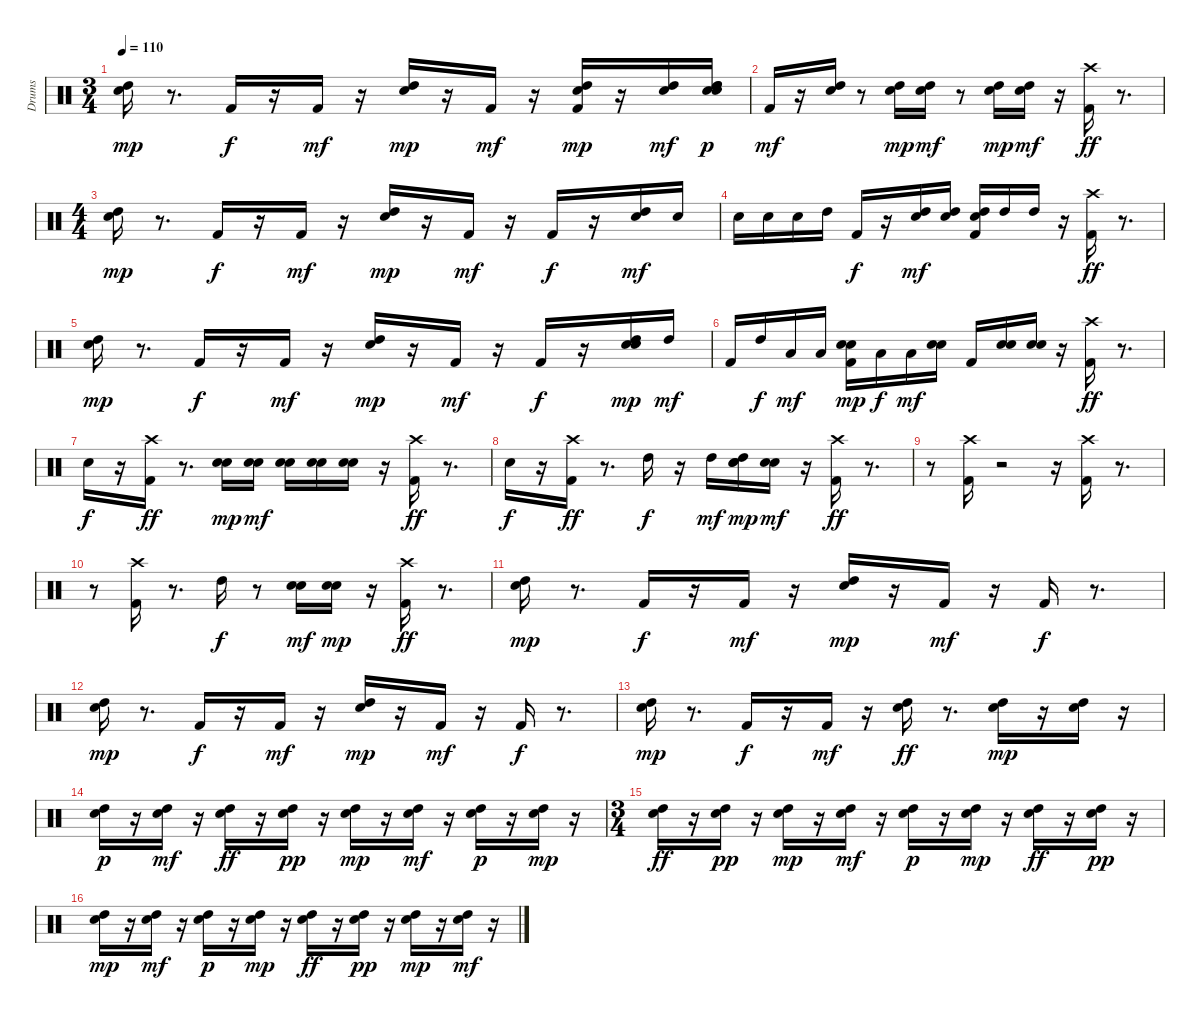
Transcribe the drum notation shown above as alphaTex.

\track ("Drums" "Drums") {instrument percussion}
\staff {score}
\articulation defaults
\ts (3 4)
\tempo 110
\clef neutral
\ks c
("High Tom (hit)" "Snare (hit) 2").16{dy mp} r.8{d} "Kick (hit) 2".16{dy f} r.16 "Kick (hit) 2".16{dy mf} r.16 ("High Tom (hit)" "Snare (hit) 2").16{dy mp} r.16 "Kick (hit) 2".16{dy mf} r.16 ("High Tom (hit)" "Snare (hit) 2" "Kick (hit) 2").16{dy mp} r.16 ("High Tom (hit)" "Snare (hit) 2").16{dy mf} ("Snare (hit) 2" "High Tom (hit)" "Snare (hit) 2" "High Tom (hit)").16{dy p} |
"Kick (hit) 2".16{dy mf} r.16 ("High Tom (hit)" "Snare (hit) 2").16 r.8 ("High Tom (hit)" "Snare (hit) 2").16{dy mp} ("High Tom (hit)" "Snare (hit) 2").16{dy mf} r.8 ("High Tom (hit)" "Snare (hit) 2").16{dy mp} ("High Tom (hit)" "Snare (hit) 2").16{dy mf} r.16 ("Crash high (hit)" "Kick (hit) 2").16{dy ff} r.8{d} |
\ts (4 4)
("High Tom (hit)" "Snare (hit) 2").16{dy mp} r.8{d} "Kick (hit) 2".16{dy f} r.16 "Kick (hit) 2".16{dy mf} r.16 ("High Tom (hit)" "Snare (hit) 2").16{dy mp} r.16 "Kick (hit) 2".16{dy mf} r.16 "Kick (hit) 2".16{dy f} r.16 ("High Tom (hit)" "Snare (hit) 2").16{dy mf} "Snare (hit) 2".16 |
"Snare (hit) 2".16 "Snare (hit) 2".16 "Snare (hit) 2".16 "High Tom (hit)".16 "Kick (hit) 2".16{dy f} r.16 ("High Tom (hit)" "Snare (hit) 2").16{dy mf} ("High Tom (hit)" "Snare (hit) 2").16 ("High Tom (hit)" "Snare (hit) 2" "Kick (hit) 2").16 "High Tom (hit)".16 "High Tom (hit)".16 r.16 ("Crash high (hit)" "Kick (hit) 2").16{dy ff} r.8{d} |
("High Tom (hit)" "Snare (hit) 2").16{dy mp} r.8{d} "Kick (hit) 2".16{dy f} r.16 "Kick (hit) 2".16{dy mf} r.16 ("High Tom (hit)" "Snare (hit) 2").16{dy mp} r.16 "Kick (hit) 2".16{dy mf} r.16 "Kick (hit) 2".16{dy f} r.16 ("Electric Snare (hit)" "Snare (hit) 2" "High Tom (hit)").16{dy mp} "High Tom (hit)".16{dy mf} |
"Kick (hit) 2".16 "High Tom (hit)".16{dy f} "Low Tom (hit)".16{dy mf} "Low Tom (hit)".16 ("Snare (hit) 2" "Electric Snare (hit)" "Kick (hit) 2").16{dy mp} "Low Tom (hit)".16{dy f} "Low Tom (hit)".16{dy mf} ("Electric Snare (hit)" "Snare (hit) 2").16 "Kick (hit) 2".16 ("Electric Snare (hit)" "Snare (hit) 2").16 ("Electric Snare (hit)" "Snare (hit) 2").16 r.16 ("Crash high (hit)" "Kick (hit) 2").16{dy ff} r.8{d} |
"Snare (hit) 2".16{dy f} r.16 ("Crash high (hit)" "Kick (hit) 2").16{dy ff} r.8{d} ("Electric Snare (hit)" "Snare (hit) 2").16{dy mp} ("Electric Snare (hit)" "Snare (hit) 2").16{dy mf} ("Electric Snare (hit)" "Snare (hit) 2").16 ("Electric Snare (hit)" "Snare (hit) 2").16 ("Electric Snare (hit)" "Snare (hit) 2").16 r.16 ("Crash high (hit)" "Kick (hit) 2").16{dy ff} r.8{d} |
"Snare (hit) 2".16{dy f} r.16 ("Crash high (hit)" "Kick (hit) 2").16{dy ff} r.8{d} "High Tom (hit)".16{dy f} r.16 "High Tom (hit)".16{dy mf} ("High Tom (hit)" "Snare (hit) 2" "Electric Snare (hit)").16{dy mp} ("Snare (hit) 2" "Electric Snare (hit)").16{dy mf} r.16 ("Crash high (hit)" "Kick (hit) 2").16{dy ff} r.8{d} |
r.8 ("Crash high (hit)" "Kick (hit) 2").16 r.2 r.16 ("Crash high (hit)" "Kick (hit) 2").16 r.8{d} |
r.8 ("Crash high (hit)" "Kick (hit) 2").16 r.8{d} "High Tom (hit)".16{dy f} r.8 ("Snare (hit) 2" "Electric Snare (hit)").16{dy mf} ("Snare (hit) 2" "Electric Snare (hit)").16{dy mp} r.16 ("Crash high (hit)" "Kick (hit) 2").16{dy ff} r.8{d} |
("High Tom (hit)" "Snare (hit) 2").16{dy mp} r.8{d} "Kick (hit) 2".16{dy f} r.16 "Kick (hit) 2".16{dy mf} r.16 ("High Tom (hit)" "Snare (hit) 2").16{dy mp} r.16 "Kick (hit) 2".16{dy mf} r.16 "Kick (hit) 2".16{dy f} r.8{d} |
("High Tom (hit)" "Snare (hit) 2").16{dy mp} r.8{d} "Kick (hit) 2".16{dy f} r.16 "Kick (hit) 2".16{dy mf} r.16 ("High Tom (hit)" "Snare (hit) 2").16{dy mp} r.16 "Kick (hit) 2".16{dy mf} r.16 "Kick (hit) 2".16{dy f} r.8{d} |
("High Tom (hit)" "Snare (hit) 2").16{dy mp} r.8{d} "Kick (hit) 2".16{dy f} r.16 "Kick (hit) 2".16{dy mf} r.16 ("High Tom (hit)" "Snare (hit) 2").16{dy ff} r.8{d} ("High Tom (hit)" "Snare (hit) 2").16{dy mp} r.16 ("High Tom (hit)" "Snare (hit) 2").16 r.16 |
("High Tom (hit)" "Snare (hit) 2").16{dy p} r.16 ("High Tom (hit)" "Snare (hit) 2").16{dy mf} r.16 ("High Tom (hit)" "Snare (hit) 2").16{dy ff} r.16 ("Snare (hit) 2" "High Tom (hit)").16{dy pp} r.16 ("High Tom (hit)" "Snare (hit) 2").16{dy mp} r.16 ("High Tom (hit)" "Snare (hit) 2").16{dy mf} r.16 ("High Tom (hit)" "Snare (hit) 2").16{dy p} r.16 ("High Tom (hit)" "Snare (hit) 2").16{dy mp} r.16 |
\ts (3 4)
("High Tom (hit)" "Snare (hit) 2").16{dy ff} r.16 ("Snare (hit) 2" "High Tom (hit)").16{dy pp} r.16 ("High Tom (hit)" "Snare (hit) 2").16{dy mp} r.16 ("High Tom (hit)" "Snare (hit) 2").16{dy mf} r.16 ("High Tom (hit)" "Snare (hit) 2").16{dy p} r.16 ("High Tom (hit)" "Snare (hit) 2").16{dy mp} r.16 ("High Tom (hit)" "Snare (hit) 2").16{dy ff} r.16 ("Snare (hit) 2" "High Tom (hit)").16{dy pp} r.16 |
("High Tom (hit)" "Snare (hit) 2").16{dy mp} r.16 ("High Tom (hit)" "Snare (hit) 2").16{dy mf} r.16 ("High Tom (hit)" "Snare (hit) 2").16{dy p} r.16 ("High Tom (hit)" "Snare (hit) 2").16{dy mp} r.16 ("High Tom (hit)" "Snare (hit) 2").16{dy ff} r.16 ("Snare (hit) 2" "High Tom (hit)").16{dy pp} r.16 ("High Tom (hit)" "Snare (hit) 2").16{dy mp} r.16 ("High Tom (hit)" "Snare (hit) 2").16{dy mf} r.16
